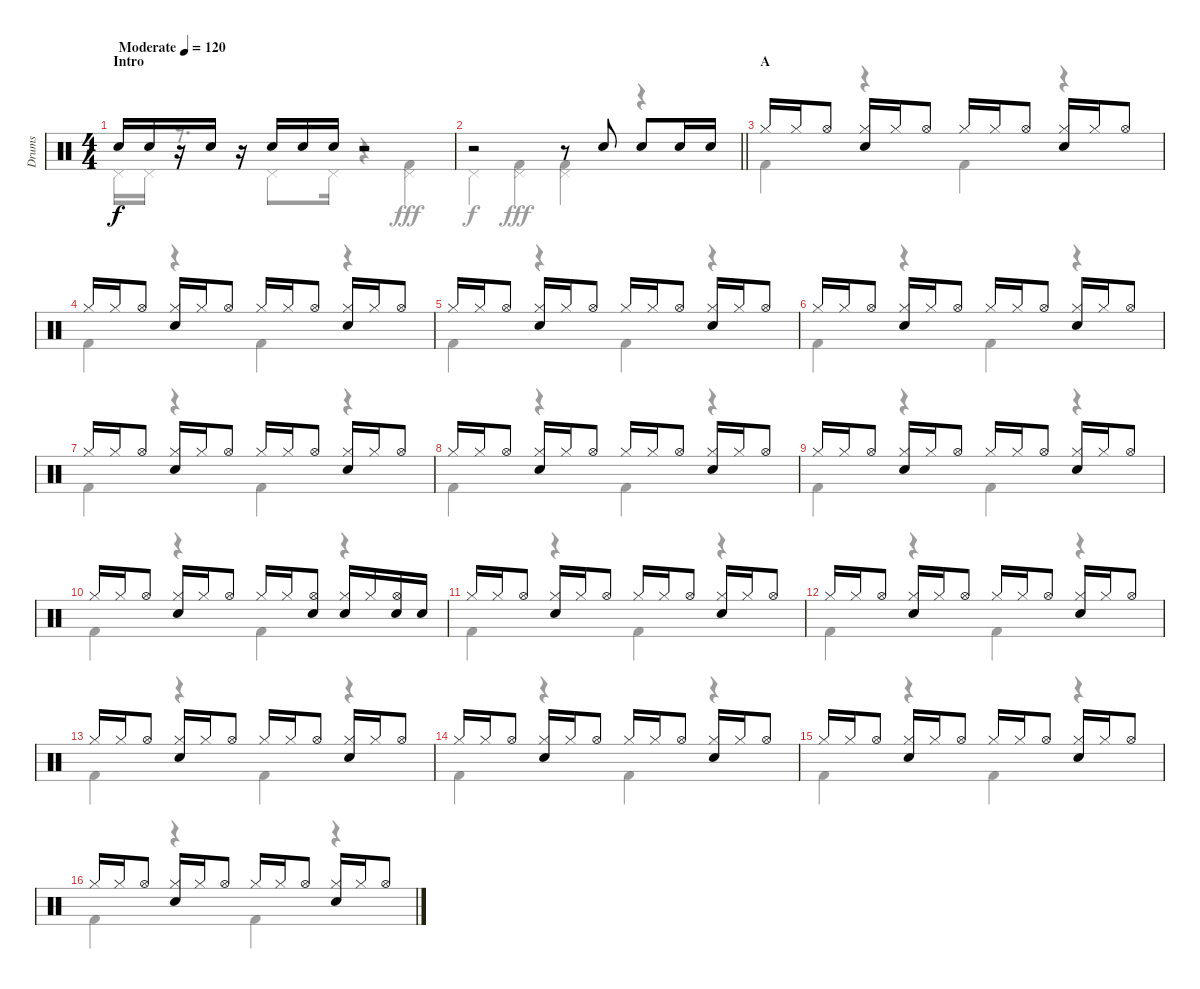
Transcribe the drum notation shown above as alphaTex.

\track ("Drums" "Drums") {instrument percussion}
\staff {score}
\articulation defaults
\voice
\ts (4 4)
\section ("" "Intro")
\tempo (120 "Moderate")
\clef neutral
\ks c "Electric Snare (hit)".16{dy f} "Electric Snare (hit)".16
r.16 "Electric Snare (hit)".16 r.16 "Electric Snare (hit)".16 "Electric Snare (hit)".16 "Electric Snare (hit)".16 r.2 |
\barLineRight lightlight
r.2 r.8 "Electric Snare (hit)".8 "Electric Snare (hit)".8 "Electric Snare (hit)".16 "Electric Snare (hit)".16 |
\section ("" "A")
"Hi-Hat (closed)".16 "Hi-Hat (closed)".16 "Hi-Hat (open)".8 ("Hi-Hat (closed)" "Electric Snare (hit)").16 "Hi-Hat (closed)".16 "Hi-Hat (open)".8 "Hi-Hat (closed)".16 "Hi-Hat (closed)".16 "Hi-Hat (open)".8 ("Hi-Hat (closed)" "Electric Snare (hit)").16 "Hi-Hat (closed)".16 "Hi-Hat (open)".8 |
"Hi-Hat (closed)".16 "Hi-Hat (closed)".16 "Hi-Hat (open)".8 ("Hi-Hat (closed)" "Electric Snare (hit)").16 "Hi-Hat (closed)".16 "Hi-Hat (open)".8 "Hi-Hat (closed)".16 "Hi-Hat (closed)".16 "Hi-Hat (open)".8 ("Hi-Hat (closed)" "Electric Snare (hit)").16 "Hi-Hat (closed)".16 "Hi-Hat (open)".8 |
"Hi-Hat (closed)".16 "Hi-Hat (closed)".16 "Hi-Hat (open)".8 ("Hi-Hat (closed)" "Electric Snare (hit)").16 "Hi-Hat (closed)".16 "Hi-Hat (open)".8 "Hi-Hat (closed)".16 "Hi-Hat (closed)".16 "Hi-Hat (open)".8 ("Hi-Hat (closed)" "Electric Snare (hit)").16 "Hi-Hat (closed)".16 "Hi-Hat (open)".8 |
"Hi-Hat (closed)".16 "Hi-Hat (closed)".16 "Hi-Hat (open)".8 ("Hi-Hat (closed)" "Electric Snare (hit)").16 "Hi-Hat (closed)".16 "Hi-Hat (open)".8 "Hi-Hat (closed)".16 "Hi-Hat (closed)".16 "Hi-Hat (open)".8 ("Hi-Hat (closed)" "Electric Snare (hit)").16 "Hi-Hat (closed)".16 "Hi-Hat (open)".8 |
"Hi-Hat (closed)".16 "Hi-Hat (closed)".16 "Hi-Hat (open)".8 ("Hi-Hat (closed)" "Electric Snare (hit)").16 "Hi-Hat (closed)".16 "Hi-Hat (open)".8 "Hi-Hat (closed)".16 "Hi-Hat (closed)".16 "Hi-Hat (open)".8 ("Hi-Hat (closed)" "Electric Snare (hit)").16 "Hi-Hat (closed)".16 "Hi-Hat (open)".8 |
"Hi-Hat (closed)".16 "Hi-Hat (closed)".16 "Hi-Hat (open)".8 ("Hi-Hat (closed)" "Electric Snare (hit)").16 "Hi-Hat (closed)".16 "Hi-Hat (open)".8 "Hi-Hat (closed)".16 "Hi-Hat (closed)".16 "Hi-Hat (open)".8 ("Hi-Hat (closed)" "Electric Snare (hit)").16 "Hi-Hat (closed)".16 "Hi-Hat (open)".8 |
"Hi-Hat (closed)".16 "Hi-Hat (closed)".16 "Hi-Hat (open)".8 ("Hi-Hat (closed)" "Electric Snare (hit)").16 "Hi-Hat (closed)".16 "Hi-Hat (open)".8 "Hi-Hat (closed)".16 "Hi-Hat (closed)".16 "Hi-Hat (open)".8 ("Hi-Hat (closed)" "Electric Snare (hit)").16 "Hi-Hat (closed)".16 "Hi-Hat (open)".8 |
"Hi-Hat (closed)".16 "Hi-Hat (closed)".16 "Hi-Hat (open)".8 ("Hi-Hat (closed)" "Electric Snare (hit)").16 "Hi-Hat (closed)".16 "Hi-Hat (open)".8 "Hi-Hat (closed)".16 "Hi-Hat (closed)".16 ("Hi-Hat (open)" "Electric Snare (hit)").8 ("Hi-Hat (closed)" "Electric Snare (hit)").16 "Hi-Hat (closed)".16 ("Hi-Hat (open)" "Electric Snare (hit)").16 "Electric Snare (hit)".16 |
"Hi-Hat (closed)".16 "Hi-Hat (closed)".16 "Hi-Hat (open)".8 ("Hi-Hat (closed)" "Electric Snare (hit)").16 "Hi-Hat (closed)".16 "Hi-Hat (open)".8 "Hi-Hat (closed)".16 "Hi-Hat (closed)".16 "Hi-Hat (open)".8 ("Hi-Hat (closed)" "Electric Snare (hit)").16 "Hi-Hat (closed)".16 "Hi-Hat (open)".8 |
"Hi-Hat (closed)".16 "Hi-Hat (closed)".16 "Hi-Hat (open)".8 ("Hi-Hat (closed)" "Electric Snare (hit)").16 "Hi-Hat (closed)".16 "Hi-Hat (open)".8 "Hi-Hat (closed)".16 "Hi-Hat (closed)".16 "Hi-Hat (open)".8 ("Hi-Hat (closed)" "Electric Snare (hit)").16 "Hi-Hat (closed)".16 "Hi-Hat (open)".8 |
"Hi-Hat (closed)".16 "Hi-Hat (closed)".16 "Hi-Hat (open)".8 ("Hi-Hat (closed)" "Electric Snare (hit)").16 "Hi-Hat (closed)".16 "Hi-Hat (open)".8 "Hi-Hat (closed)".16 "Hi-Hat (closed)".16 "Hi-Hat (open)".8 ("Hi-Hat (closed)" "Electric Snare (hit)").16 "Hi-Hat (closed)".16 "Hi-Hat (open)".8 |
"Hi-Hat (closed)".16 "Hi-Hat (closed)".16 "Hi-Hat (open)".8 ("Hi-Hat (closed)" "Electric Snare (hit)").16 "Hi-Hat (closed)".16 "Hi-Hat (open)".8 "Hi-Hat (closed)".16 "Hi-Hat (closed)".16 "Hi-Hat (open)".8 ("Hi-Hat (closed)" "Electric Snare (hit)").16 "Hi-Hat (closed)".16 "Hi-Hat (open)".8 |
"Hi-Hat (closed)".16 "Hi-Hat (closed)".16 "Hi-Hat (open)".8 ("Hi-Hat (closed)" "Electric Snare (hit)").16 "Hi-Hat (closed)".16 "Hi-Hat (open)".8 "Hi-Hat (closed)".16 "Hi-Hat (closed)".16 "Hi-Hat (open)".8 ("Hi-Hat (closed)" "Electric Snare (hit)").16 "Hi-Hat (closed)".16 "Hi-Hat (open)".8 |
"Hi-Hat (closed)".16 "Hi-Hat (closed)".16 "Hi-Hat (open)".8 ("Hi-Hat (closed)" "Electric Snare (hit)").16 "Hi-Hat (closed)".16 "Hi-Hat (open)".8 "Hi-Hat (closed)".16 "Hi-Hat (closed)".16 "Hi-Hat (open)".8 ("Hi-Hat (closed)" "Electric Snare (hit)").16 "Hi-Hat (closed)".16 "Hi-Hat (open)".8
\voice
\clef neutral
\ottava regular
\simile none
\ks c "Pedal Hi-Hat (hit)".16{dy f} "Pedal Hi-Hat (hit)".16
r.8{d} "Pedal Hi-Hat (hit)".8 "Pedal Hi-Hat (hit)".16 r.4 ("Pedal Hi-Hat (hit)" "Kick (hit) 2").4{dy fff} |
\barLineRight lightlight "Pedal Hi-Hat (hit)".4{dy f}
("Pedal Hi-Hat (hit)" "Kick (hit) 2").4{dy fff} ("Pedal Hi-Hat (hit)" "Kick (hit) 2").4 r.4 |
"Kick (hit) 2".4 r.4 "Kick (hit) 2".4 r.4 |
"Kick (hit) 2".4 r.4 "Kick (hit) 2".4 r.4 |
"Kick (hit) 2".4 r.4 "Kick (hit) 2".4 r.4 |
"Kick (hit) 2".4 r.4 "Kick (hit) 2".4 r.4 |
"Kick (hit) 2".4 r.4 "Kick (hit) 2".4 r.4 |
"Kick (hit) 2".4 r.4 "Kick (hit) 2".4 r.4 |
"Kick (hit) 2".4 r.4 "Kick (hit) 2".4 r.4 |
"Kick (hit) 2".4 r.4 "Kick (hit) 2".4 r.4 |
"Kick (hit) 2".4 r.4 "Kick (hit) 2".4 r.4 |
"Kick (hit) 2".4 r.4 "Kick (hit) 2".4 r.4 |
"Kick (hit) 2".4 r.4 "Kick (hit) 2".4 r.4 |
"Kick (hit) 2".4 r.4 "Kick (hit) 2".4 r.4 |
"Kick (hit) 2".4 r.4 "Kick (hit) 2".4 r.4 |
"Kick (hit) 2".4 r.4 "Kick (hit) 2".4 r.4
